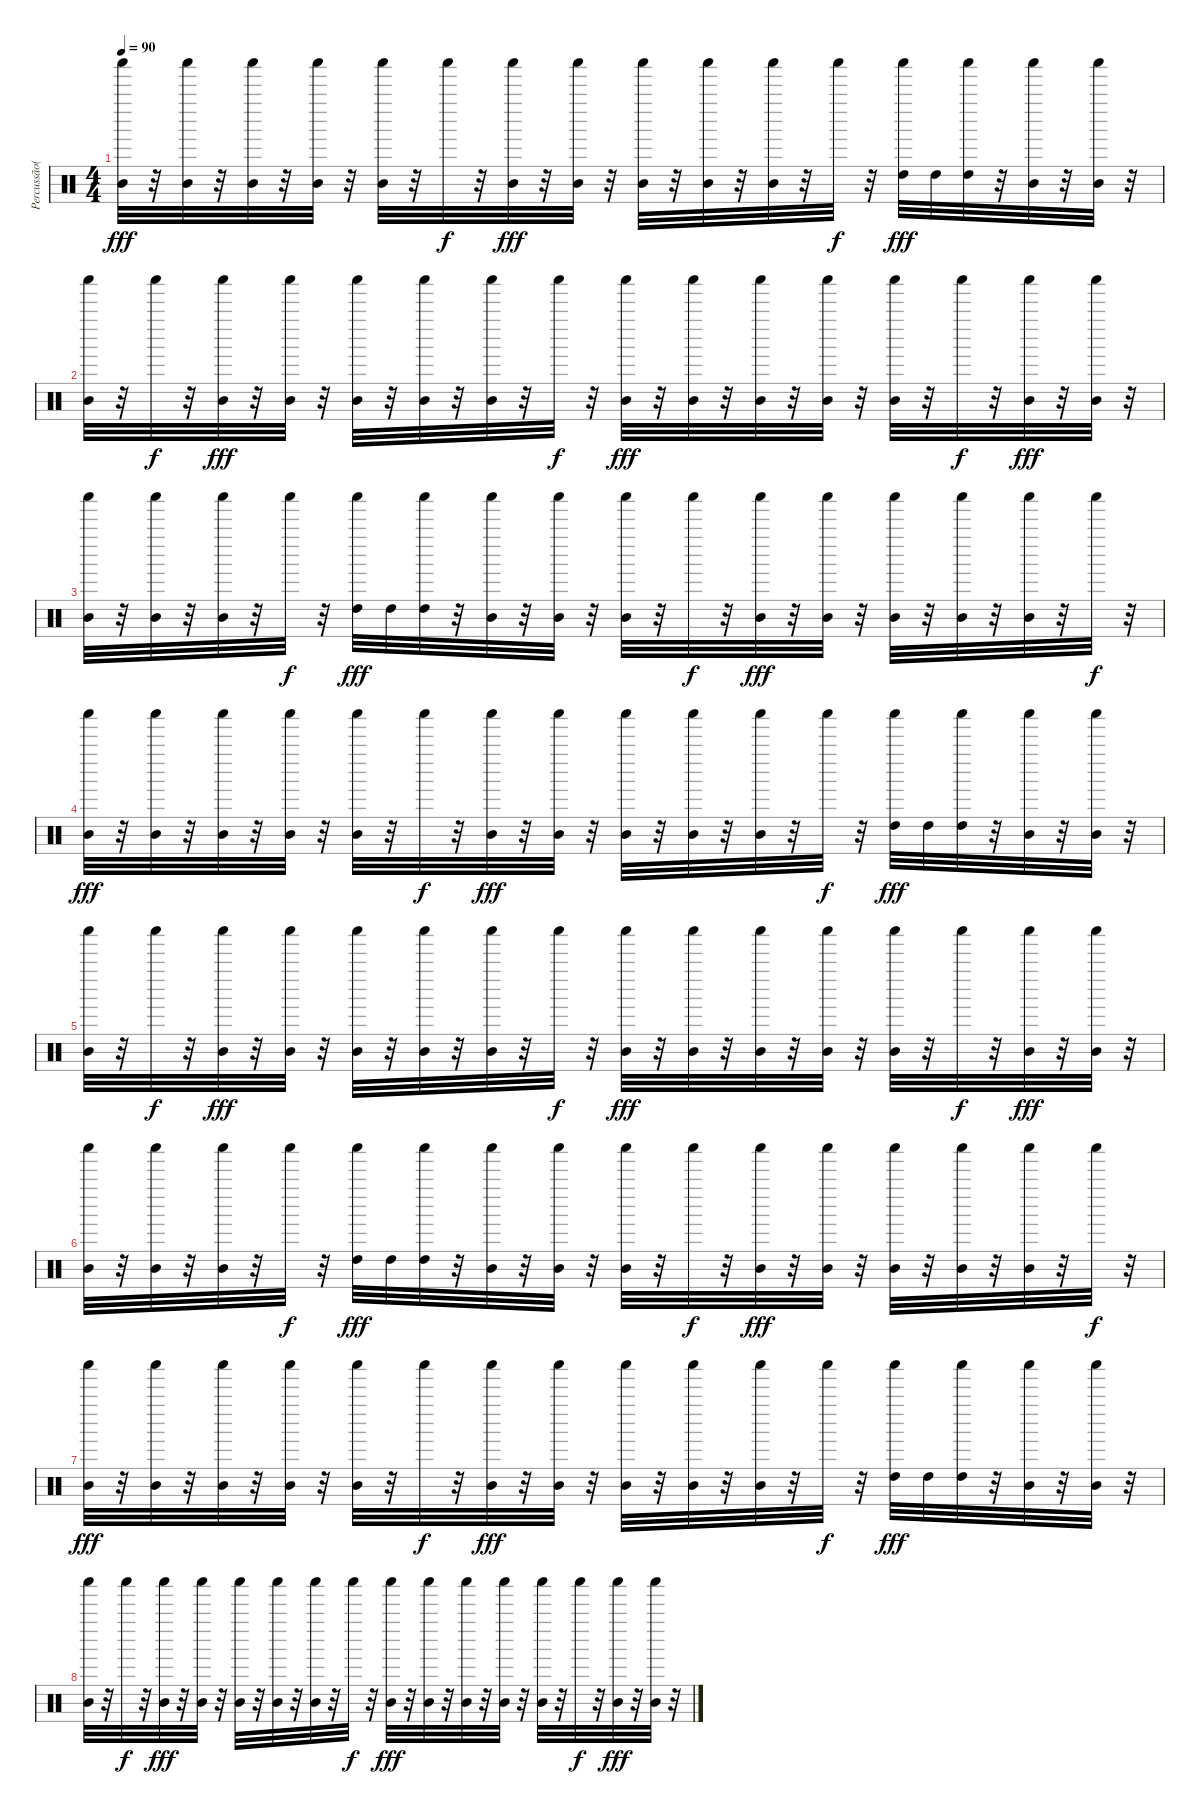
\track ("Percussão(Percussion)-1" "Percussão(") {instrument percussion}
\staff {score}
\articulation defaults
\ts (4 4)
\tempo 90
\clef neutral
\ks c
("Mid Tom (hit)" "Shaker (hit)").32{dy fff} r.32 ("Mid Tom (hit)" "Shaker (hit)").32 r.32 ("Mid Tom (hit)" "Shaker (hit)").32 r.32 ("Mid Tom (hit)" "Shaker (hit)").32 r.32 ("Mid Tom (hit)" "Shaker (hit)").32 r.32 "Shaker (hit)".32{dy f} r.32 ("Mid Tom (hit)" "Shaker (hit)").32{dy fff} r.32 ("Mid Tom (hit)" "Shaker (hit)").32 r.32 ("Mid Tom (hit)" "Shaker (hit)").32 r.32 ("Mid Tom (hit)" "Shaker (hit)").32 r.32 ("Mid Tom (hit)" "Shaker (hit)").32 r.32 "Shaker (hit)".32{dy f} r.32 ("High Tom (hit)" "Shaker (hit)").32{dy fff} "High Tom (hit)".32 ("High Tom (hit)" "Shaker (hit)").32 r.32 ("Mid Tom (hit)" "Shaker (hit)").32 r.32 ("Mid Tom (hit)" "Shaker (hit)").32 r.32 |
("Mid Tom (hit)" "Shaker (hit)").32 r.32 "Shaker (hit)".32{dy f} r.32 ("Mid Tom (hit)" "Shaker (hit)").32{dy fff} r.32 ("Mid Tom (hit)" "Shaker (hit)").32 r.32 ("Mid Tom (hit)" "Shaker (hit)").32 r.32 ("Mid Tom (hit)" "Shaker (hit)").32 r.32 ("Mid Tom (hit)" "Shaker (hit)").32 r.32 "Shaker (hit)".32{dy f} r.32 ("Mid Tom (hit)" "Shaker (hit)").32{dy fff} r.32 ("Mid Tom (hit)" "Shaker (hit)").32 r.32 ("Mid Tom (hit)" "Shaker (hit)").32 r.32 ("Mid Tom (hit)" "Shaker (hit)").32 r.32 ("Mid Tom (hit)" "Shaker (hit)").32 r.32 "Shaker (hit)".32{dy f} r.32 ("Mid Tom (hit)" "Shaker (hit)").32{dy fff} r.32 ("Mid Tom (hit)" "Shaker (hit)").32 r.32 |
("Mid Tom (hit)" "Shaker (hit)").32 r.32 ("Mid Tom (hit)" "Shaker (hit)").32 r.32 ("Mid Tom (hit)" "Shaker (hit)").32 r.32 "Shaker (hit)".32{dy f} r.32 ("High Tom (hit)" "Shaker (hit)").32{dy fff} "High Tom (hit)".32 ("High Tom (hit)" "Shaker (hit)").32 r.32 ("Mid Tom (hit)" "Shaker (hit)").32 r.32 ("Mid Tom (hit)" "Shaker (hit)").32 r.32 ("Mid Tom (hit)" "Shaker (hit)").32 r.32 "Shaker (hit)".32{dy f} r.32 ("Mid Tom (hit)" "Shaker (hit)").32{dy fff} r.32 ("Mid Tom (hit)" "Shaker (hit)").32 r.32 ("Mid Tom (hit)" "Shaker (hit)").32 r.32 ("Mid Tom (hit)" "Shaker (hit)").32 r.32 ("Mid Tom (hit)" "Shaker (hit)").32 r.32 "Shaker (hit)".32{dy f} r.32 |
("Mid Tom (hit)" "Shaker (hit)").32{dy fff} r.32 ("Mid Tom (hit)" "Shaker (hit)").32 r.32 ("Mid Tom (hit)" "Shaker (hit)").32 r.32 ("Mid Tom (hit)" "Shaker (hit)").32 r.32 ("Mid Tom (hit)" "Shaker (hit)").32 r.32 "Shaker (hit)".32{dy f} r.32 ("Mid Tom (hit)" "Shaker (hit)").32{dy fff} r.32 ("Mid Tom (hit)" "Shaker (hit)").32 r.32 ("Mid Tom (hit)" "Shaker (hit)").32 r.32 ("Mid Tom (hit)" "Shaker (hit)").32 r.32 ("Mid Tom (hit)" "Shaker (hit)").32 r.32 "Shaker (hit)".32{dy f} r.32 ("High Tom (hit)" "Shaker (hit)").32{dy fff} "High Tom (hit)".32 ("High Tom (hit)" "Shaker (hit)").32 r.32 ("Mid Tom (hit)" "Shaker (hit)").32 r.32 ("Mid Tom (hit)" "Shaker (hit)").32 r.32 |
("Mid Tom (hit)" "Shaker (hit)").32 r.32 "Shaker (hit)".32{dy f} r.32 ("Mid Tom (hit)" "Shaker (hit)").32{dy fff} r.32 ("Mid Tom (hit)" "Shaker (hit)").32 r.32 ("Mid Tom (hit)" "Shaker (hit)").32 r.32 ("Mid Tom (hit)" "Shaker (hit)").32 r.32 ("Mid Tom (hit)" "Shaker (hit)").32 r.32 "Shaker (hit)".32{dy f} r.32 ("Mid Tom (hit)" "Shaker (hit)").32{dy fff} r.32 ("Mid Tom (hit)" "Shaker (hit)").32 r.32 ("Mid Tom (hit)" "Shaker (hit)").32 r.32 ("Mid Tom (hit)" "Shaker (hit)").32 r.32 ("Mid Tom (hit)" "Shaker (hit)").32 r.32 "Shaker (hit)".32{dy f} r.32 ("Mid Tom (hit)" "Shaker (hit)").32{dy fff} r.32 ("Mid Tom (hit)" "Shaker (hit)").32 r.32 |
("Mid Tom (hit)" "Shaker (hit)").32 r.32 ("Mid Tom (hit)" "Shaker (hit)").32 r.32 ("Mid Tom (hit)" "Shaker (hit)").32 r.32 "Shaker (hit)".32{dy f} r.32 ("High Tom (hit)" "Shaker (hit)").32{dy fff} "High Tom (hit)".32 ("High Tom (hit)" "Shaker (hit)").32 r.32 ("Mid Tom (hit)" "Shaker (hit)").32 r.32 ("Mid Tom (hit)" "Shaker (hit)").32 r.32 ("Mid Tom (hit)" "Shaker (hit)").32 r.32 "Shaker (hit)".32{dy f} r.32 ("Mid Tom (hit)" "Shaker (hit)").32{dy fff} r.32 ("Mid Tom (hit)" "Shaker (hit)").32 r.32 ("Mid Tom (hit)" "Shaker (hit)").32 r.32 ("Mid Tom (hit)" "Shaker (hit)").32 r.32 ("Mid Tom (hit)" "Shaker (hit)").32 r.32 "Shaker (hit)".32{dy f} r.32 |
("Mid Tom (hit)" "Shaker (hit)").32{dy fff} r.32 ("Mid Tom (hit)" "Shaker (hit)").32 r.32 ("Mid Tom (hit)" "Shaker (hit)").32 r.32 ("Mid Tom (hit)" "Shaker (hit)").32 r.32 ("Mid Tom (hit)" "Shaker (hit)").32 r.32 "Shaker (hit)".32{dy f} r.32 ("Mid Tom (hit)" "Shaker (hit)").32{dy fff} r.32 ("Mid Tom (hit)" "Shaker (hit)").32 r.32 ("Mid Tom (hit)" "Shaker (hit)").32 r.32 ("Mid Tom (hit)" "Shaker (hit)").32 r.32 ("Mid Tom (hit)" "Shaker (hit)").32 r.32 "Shaker (hit)".32{dy f} r.32 ("High Tom (hit)" "Shaker (hit)").32{dy fff} "High Tom (hit)".32 ("High Tom (hit)" "Shaker (hit)").32 r.32 ("Mid Tom (hit)" "Shaker (hit)").32 r.32 ("Mid Tom (hit)" "Shaker (hit)").32 r.32 |
("Mid Tom (hit)" "Shaker (hit)").32 r.32 "Shaker (hit)".32{dy f} r.32 ("Mid Tom (hit)" "Shaker (hit)").32{dy fff} r.32 ("Mid Tom (hit)" "Shaker (hit)").32 r.32 ("Mid Tom (hit)" "Shaker (hit)").32 r.32 ("Mid Tom (hit)" "Shaker (hit)").32 r.32 ("Mid Tom (hit)" "Shaker (hit)").32 r.32 "Shaker (hit)".32{dy f} r.32 ("Mid Tom (hit)" "Shaker (hit)").32{dy fff} r.32 ("Mid Tom (hit)" "Shaker (hit)").32 r.32 ("Mid Tom (hit)" "Shaker (hit)").32 r.32 ("Mid Tom (hit)" "Shaker (hit)").32 r.32 ("Mid Tom (hit)" "Shaker (hit)").32 r.32 "Shaker (hit)".32{dy f} r.32 ("Mid Tom (hit)" "Shaker (hit)").32{dy fff} r.32 ("Mid Tom (hit)" "Shaker (hit)").32 r.32
